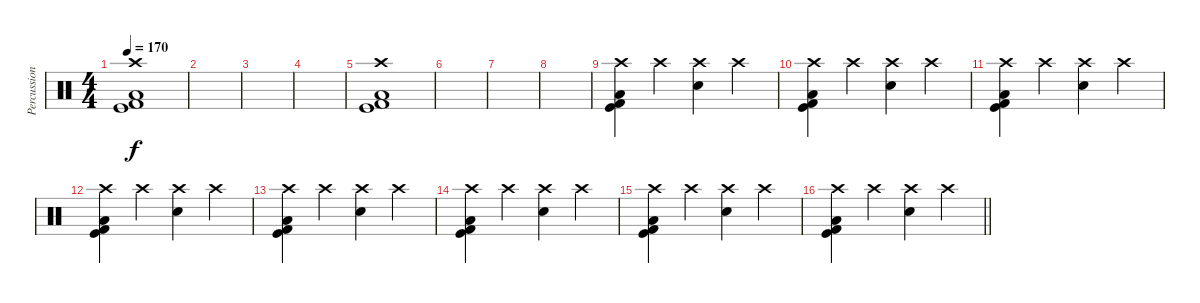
\track ("Percussion" "Percussion") {instrument percussion}
\staff {score}
\articulation defaults
\ts (4 4)
\tempo 170
\clef neutral
\ks c
("Low Floor Tom (hit)" "Kick (hit) 2" "Kick (hit)" "Crash high (hit)").1{dy f} |
|
|
|
("Low Floor Tom (hit)" "Kick (hit) 2" "Kick (hit)" "Crash high (hit)").1 |
|
|
|
("Low Floor Tom (hit)" "Kick (hit) 2" "Kick (hit)" "Crash high (hit)").4 "Crash high (hit)".4 ("Electric Snare (hit)" "Crash high (hit)").4 "Crash high (hit)".4 |
("Low Floor Tom (hit)" "Kick (hit) 2" "Kick (hit)" "Crash high (hit)").4 "Crash high (hit)".4 ("Electric Snare (hit)" "Crash high (hit)").4 "Crash high (hit)".4 |
("Low Floor Tom (hit)" "Kick (hit) 2" "Kick (hit)" "Crash high (hit)").4 "Crash high (hit)".4 ("Electric Snare (hit)" "Crash high (hit)").4 "Crash high (hit)".4 |
("Low Floor Tom (hit)" "Kick (hit) 2" "Kick (hit)" "Crash high (hit)").4 "Crash high (hit)".4 ("Electric Snare (hit)" "Crash high (hit)").4 "Crash high (hit)".4 |
("Low Floor Tom (hit)" "Kick (hit) 2" "Kick (hit)" "Crash high (hit)").4 "Crash high (hit)".4 ("Electric Snare (hit)" "Crash high (hit)").4 "Crash high (hit)".4 |
("Low Floor Tom (hit)" "Kick (hit) 2" "Kick (hit)" "Crash high (hit)").4 "Crash high (hit)".4 ("Electric Snare (hit)" "Crash high (hit)").4 "Crash high (hit)".4 |
("Low Floor Tom (hit)" "Kick (hit) 2" "Kick (hit)" "Crash high (hit)").4 "Crash high (hit)".4 ("Electric Snare (hit)" "Crash high (hit)").4 "Crash high (hit)".4 |
\barLineRight lightlight
("Low Floor Tom (hit)" "Kick (hit) 2" "Kick (hit)" "Crash high (hit)").4 "Crash high (hit)".4 ("Electric Snare (hit)" "Crash high (hit)").4 "Crash high (hit)".4
